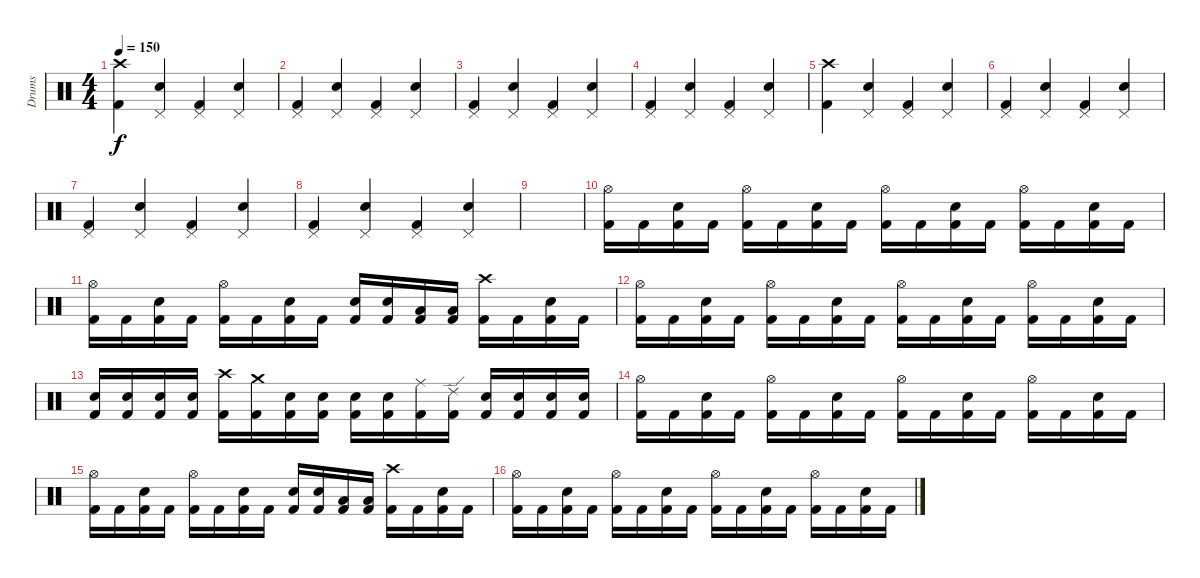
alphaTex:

\track ("Drums" "Drums") {instrument percussion}
\staff {score}
\articulation defaults
\ts (4 4)
\tempo 150
\clef neutral
\ks c
("Crash high (hit)" "Kick (hit) 2").4{dy f} ("Pedal Hi-Hat (hit)" "Electric Snare (hit)").4 ("Pedal Hi-Hat (hit)" "Kick (hit) 2").4 ("Pedal Hi-Hat (hit)" "Electric Snare (hit)").4 |
("Pedal Hi-Hat (hit)" "Kick (hit) 2").4 ("Pedal Hi-Hat (hit)" "Electric Snare (hit)").4 ("Pedal Hi-Hat (hit)" "Kick (hit) 2").4 ("Pedal Hi-Hat (hit)" "Electric Snare (hit)").4 |
("Pedal Hi-Hat (hit)" "Kick (hit) 2").4 ("Pedal Hi-Hat (hit)" "Electric Snare (hit)").4 ("Pedal Hi-Hat (hit)" "Kick (hit) 2").4 ("Pedal Hi-Hat (hit)" "Electric Snare (hit)").4 |
("Pedal Hi-Hat (hit)" "Kick (hit) 2").4 ("Pedal Hi-Hat (hit)" "Electric Snare (hit)").4 ("Pedal Hi-Hat (hit)" "Kick (hit) 2").4 ("Pedal Hi-Hat (hit)" "Electric Snare (hit)").4 |
("Crash high (hit)" "Kick (hit) 2").4 ("Pedal Hi-Hat (hit)" "Electric Snare (hit)").4 ("Pedal Hi-Hat (hit)" "Kick (hit) 2").4 ("Pedal Hi-Hat (hit)" "Electric Snare (hit)").4 |
("Pedal Hi-Hat (hit)" "Kick (hit) 2").4 ("Pedal Hi-Hat (hit)" "Electric Snare (hit)").4 ("Pedal Hi-Hat (hit)" "Kick (hit) 2").4 ("Pedal Hi-Hat (hit)" "Electric Snare (hit)").4 |
("Pedal Hi-Hat (hit)" "Kick (hit) 2").4 ("Pedal Hi-Hat (hit)" "Electric Snare (hit)").4 ("Pedal Hi-Hat (hit)" "Kick (hit) 2").4 ("Pedal Hi-Hat (hit)" "Electric Snare (hit)").4 |
("Pedal Hi-Hat (hit)" "Kick (hit) 2").4 ("Pedal Hi-Hat (hit)" "Electric Snare (hit)").4 ("Pedal Hi-Hat (hit)" "Kick (hit) 2").4 ("Pedal Hi-Hat (hit)" "Electric Snare (hit)").4 |
|
("Hi-Hat (open)" "Kick (hit) 2").16 "Kick (hit) 2".16 ("Electric Snare (hit)" "Kick (hit) 2").16 "Kick (hit) 2".16 ("Hi-Hat (open)" "Kick (hit) 2").16 "Kick (hit) 2".16 ("Electric Snare (hit)" "Kick (hit) 2").16 "Kick (hit) 2".16 ("Hi-Hat (open)" "Kick (hit) 2").16 "Kick (hit) 2".16 ("Electric Snare (hit)" "Kick (hit) 2").16 "Kick (hit) 2".16 ("Hi-Hat (open)" "Kick (hit) 2").16 "Kick (hit) 2".16 ("Electric Snare (hit)" "Kick (hit) 2").16 "Kick (hit) 2".16 |
("Hi-Hat (open)" "Kick (hit) 2").16 "Kick (hit) 2".16 ("Electric Snare (hit)" "Kick (hit) 2").16 "Kick (hit) 2".16 ("Hi-Hat (open)" "Kick (hit) 2").16 "Kick (hit) 2".16 ("Electric Snare (hit)" "Kick (hit) 2").16 "Kick (hit) 2".16 ("Electric Snare (hit)" "Kick (hit) 2").16 ("Electric Snare (hit)" "Kick (hit) 2").16 ("Low Tom (hit)" "Kick (hit) 2").16 ("Low Tom (hit)" "Kick (hit) 2").16 ("Crash high (hit)" "Kick (hit) 2").16 "Kick (hit) 2".16 ("Electric Snare (hit)" "Kick (hit) 2").16 "Kick (hit) 2".16 |
("Hi-Hat (open)" "Kick (hit) 2").16 "Kick (hit) 2".16 ("Electric Snare (hit)" "Kick (hit) 2").16 "Kick (hit) 2".16 ("Hi-Hat (open)" "Kick (hit) 2").16 "Kick (hit) 2".16 ("Electric Snare (hit)" "Kick (hit) 2").16 "Kick (hit) 2".16 ("Hi-Hat (open)" "Kick (hit) 2").16 "Kick (hit) 2".16 ("Electric Snare (hit)" "Kick (hit) 2").16 "Kick (hit) 2".16 ("Hi-Hat (open)" "Kick (hit) 2").16 "Kick (hit) 2".16 ("Electric Snare (hit)" "Kick (hit) 2").16 "Kick (hit) 2".16 |
("Electric Snare (hit)" "Kick (hit) 2").16 ("Electric Snare (hit)" "Kick (hit) 2").16 ("Electric Snare (hit)" "Kick (hit) 2").16 ("Electric Snare (hit)" "Kick (hit) 2").16 ("Crash high (hit)" "Kick (hit) 2").16 ("Crash medium (hit)" "Kick (hit) 2").16 ("Electric Snare (hit)" "Kick (hit) 2").16 ("Electric Snare (hit)" "Kick (hit) 2").16 ("Electric Snare (hit)" "Kick (hit) 2").16 ("Electric Snare (hit)" "Kick (hit) 2").16 ("Ride (middle)" "Kick (hit) 2").16 ("Ride (edge) 2" "Kick (hit) 2").16 ("Electric Snare (hit)" "Kick (hit) 2").16 ("Electric Snare (hit)" "Kick (hit) 2").16 ("Electric Snare (hit)" "Kick (hit) 2").16 ("Electric Snare (hit)" "Kick (hit) 2").16 |
("Hi-Hat (open)" "Kick (hit) 2").16 "Kick (hit) 2".16 ("Electric Snare (hit)" "Kick (hit) 2").16 "Kick (hit) 2".16 ("Hi-Hat (open)" "Kick (hit) 2").16 "Kick (hit) 2".16 ("Electric Snare (hit)" "Kick (hit) 2").16 "Kick (hit) 2".16 ("Hi-Hat (open)" "Kick (hit) 2").16 "Kick (hit) 2".16 ("Electric Snare (hit)" "Kick (hit) 2").16 "Kick (hit) 2".16 ("Hi-Hat (open)" "Kick (hit) 2").16 "Kick (hit) 2".16 ("Electric Snare (hit)" "Kick (hit) 2").16 "Kick (hit) 2".16 |
("Hi-Hat (open)" "Kick (hit) 2").16 "Kick (hit) 2".16 ("Electric Snare (hit)" "Kick (hit) 2").16 "Kick (hit) 2".16 ("Hi-Hat (open)" "Kick (hit) 2").16 "Kick (hit) 2".16 ("Electric Snare (hit)" "Kick (hit) 2").16 "Kick (hit) 2".16 ("Electric Snare (hit)" "Kick (hit) 2").16 ("Electric Snare (hit)" "Kick (hit) 2").16 ("Low Tom (hit)" "Kick (hit) 2").16 ("Low Tom (hit)" "Kick (hit) 2").16 ("Crash high (hit)" "Kick (hit) 2").16 "Kick (hit) 2".16 ("Electric Snare (hit)" "Kick (hit) 2").16 "Kick (hit) 2".16 |
("Hi-Hat (open)" "Kick (hit) 2").16 "Kick (hit) 2".16 ("Electric Snare (hit)" "Kick (hit) 2").16 "Kick (hit) 2".16 ("Hi-Hat (open)" "Kick (hit) 2").16 "Kick (hit) 2".16 ("Electric Snare (hit)" "Kick (hit) 2").16 "Kick (hit) 2".16 ("Hi-Hat (open)" "Kick (hit) 2").16 "Kick (hit) 2".16 ("Electric Snare (hit)" "Kick (hit) 2").16 "Kick (hit) 2".16 ("Hi-Hat (open)" "Kick (hit) 2").16 "Kick (hit) 2".16 ("Electric Snare (hit)" "Kick (hit) 2").16 "Kick (hit) 2".16
